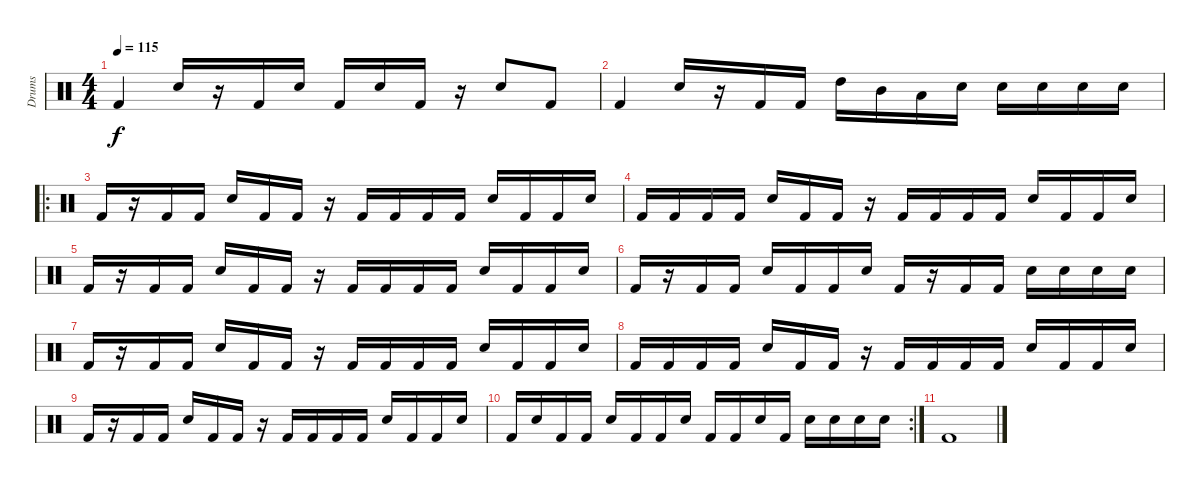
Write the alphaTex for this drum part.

\track ("Drums" "Drums") {instrument percussion}
\staff {score}
\articulation defaults
\ts (4 4)
\tempo 115
\clef neutral
\ks c "Kick (hit) 2".4{dy f} "Snare (hit) 2".16
r.16 "Kick (hit) 2".16 "Snare (hit) 2".16 "Kick (hit) 2".16 "Snare (hit) 2".16 "Kick (hit) 2".16 r.16 "Snare (hit) 2".8 "Kick (hit) 2".8 |
"Kick (hit) 2".4 "Snare (hit) 2".16 r.16 "Kick (hit) 2".16 "Kick (hit) 2".16 "High Tom (hit)".16 "Mid Tom (hit)".16 "Low Tom (hit)".16 "Snare (hit) 2".16 "Snare (hit) 2".16 "Snare (hit) 2".16 "Snare (hit) 2".16 "Snare (hit) 2".16 |
\ro "Kick (hit) 2".16
r.16 "Kick (hit) 2".16 "Kick (hit) 2".16 "Snare (hit) 2".16 "Kick (hit) 2".16 "Kick (hit) 2".16 r.16 "Kick (hit) 2".16 "Kick (hit) 2".16 "Kick (hit) 2".16 "Kick (hit) 2".16 "Snare (hit) 2".16 "Kick (hit) 2".16 "Kick (hit) 2".16 "Snare (hit) 2".16 |
"Kick (hit) 2".16 "Kick (hit) 2".16 "Kick (hit) 2".16 "Kick (hit) 2".16 "Snare (hit) 2".16 "Kick (hit) 2".16 "Kick (hit) 2".16 r.16 "Kick (hit) 2".16 "Kick (hit) 2".16 "Kick (hit) 2".16 "Kick (hit) 2".16 "Snare (hit) 2".16 "Kick (hit) 2".16 "Kick (hit) 2".16 "Snare (hit) 2".16 |
"Kick (hit) 2".16 r.16 "Kick (hit) 2".16 "Kick (hit) 2".16 "Snare (hit) 2".16 "Kick (hit) 2".16 "Kick (hit) 2".16 r.16 "Kick (hit) 2".16 "Kick (hit) 2".16 "Kick (hit) 2".16 "Kick (hit) 2".16 "Snare (hit) 2".16 "Kick (hit) 2".16 "Kick (hit) 2".16 "Snare (hit) 2".16 |
"Kick (hit) 2".16 r.16 "Kick (hit) 2".16 "Kick (hit) 2".16 "Snare (hit) 2".16 "Kick (hit) 2".16 "Kick (hit) 2".16 "Snare (hit) 2".16 "Kick (hit) 2".16 r.16 "Kick (hit) 2".16 "Kick (hit) 2".16 "Snare (hit) 2".16 "Snare (hit) 2".16 "Snare (hit) 2".16 "Snare (hit) 2".16 |
"Kick (hit) 2".16 r.16 "Kick (hit) 2".16 "Kick (hit) 2".16 "Snare (hit) 2".16 "Kick (hit) 2".16 "Kick (hit) 2".16 r.16 "Kick (hit) 2".16 "Kick (hit) 2".16 "Kick (hit) 2".16 "Kick (hit) 2".16 "Snare (hit) 2".16 "Kick (hit) 2".16 "Kick (hit) 2".16 "Snare (hit) 2".16 |
"Kick (hit) 2".16 "Kick (hit) 2".16 "Kick (hit) 2".16 "Kick (hit) 2".16 "Snare (hit) 2".16 "Kick (hit) 2".16 "Kick (hit) 2".16 r.16 "Kick (hit) 2".16 "Kick (hit) 2".16 "Kick (hit) 2".16 "Kick (hit) 2".16 "Snare (hit) 2".16 "Kick (hit) 2".16 "Kick (hit) 2".16 "Snare (hit) 2".16 |
"Kick (hit) 2".16 r.16 "Kick (hit) 2".16 "Kick (hit) 2".16 "Snare (hit) 2".16 "Kick (hit) 2".16 "Kick (hit) 2".16 r.16 "Kick (hit) 2".16 "Kick (hit) 2".16 "Kick (hit) 2".16 "Kick (hit) 2".16 "Snare (hit) 2".16 "Kick (hit) 2".16 "Kick (hit) 2".16 "Snare (hit) 2".16 |
\rc 2 "Kick (hit) 2".16 "Snare (hit) 2".16 "Kick (hit) 2".16 "Kick (hit) 2".16 "Snare (hit) 2".16 "Kick (hit) 2".16 "Kick (hit) 2".16 "Snare (hit) 2".16 "Kick (hit) 2".16 "Kick (hit) 2".16 "Snare (hit) 2".16 "Kick (hit) 2".16 "Snare (hit) 2".16 "Snare (hit) 2".16 "Snare (hit) 2".16 "Snare (hit) 2".16
|
"Kick (hit) 2".1
